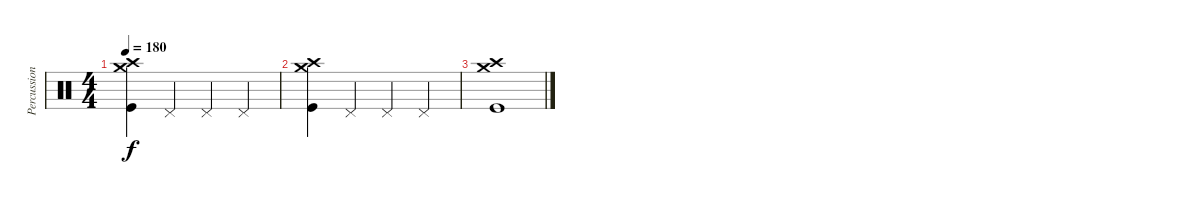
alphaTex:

\track ("Percussion" "Percussion") {instrument percussion}
\staff {score}
\articulation defaults
\ts (4 4)
\tempo 180
\clef neutral
\ks c
("Crash medium (hit)" "Crash high (hit)" "Kick (hit)").4{dy f} "Pedal Hi-Hat (hit)".4 "Pedal Hi-Hat (hit)".4 "Pedal Hi-Hat (hit)".4 |
("Crash medium (hit)" "Crash high (hit)" "Kick (hit)").4 "Pedal Hi-Hat (hit)".4 "Pedal Hi-Hat (hit)".4 "Pedal Hi-Hat (hit)".4 |
("Crash medium (hit)" "Crash high (hit)" "Kick (hit)").1
